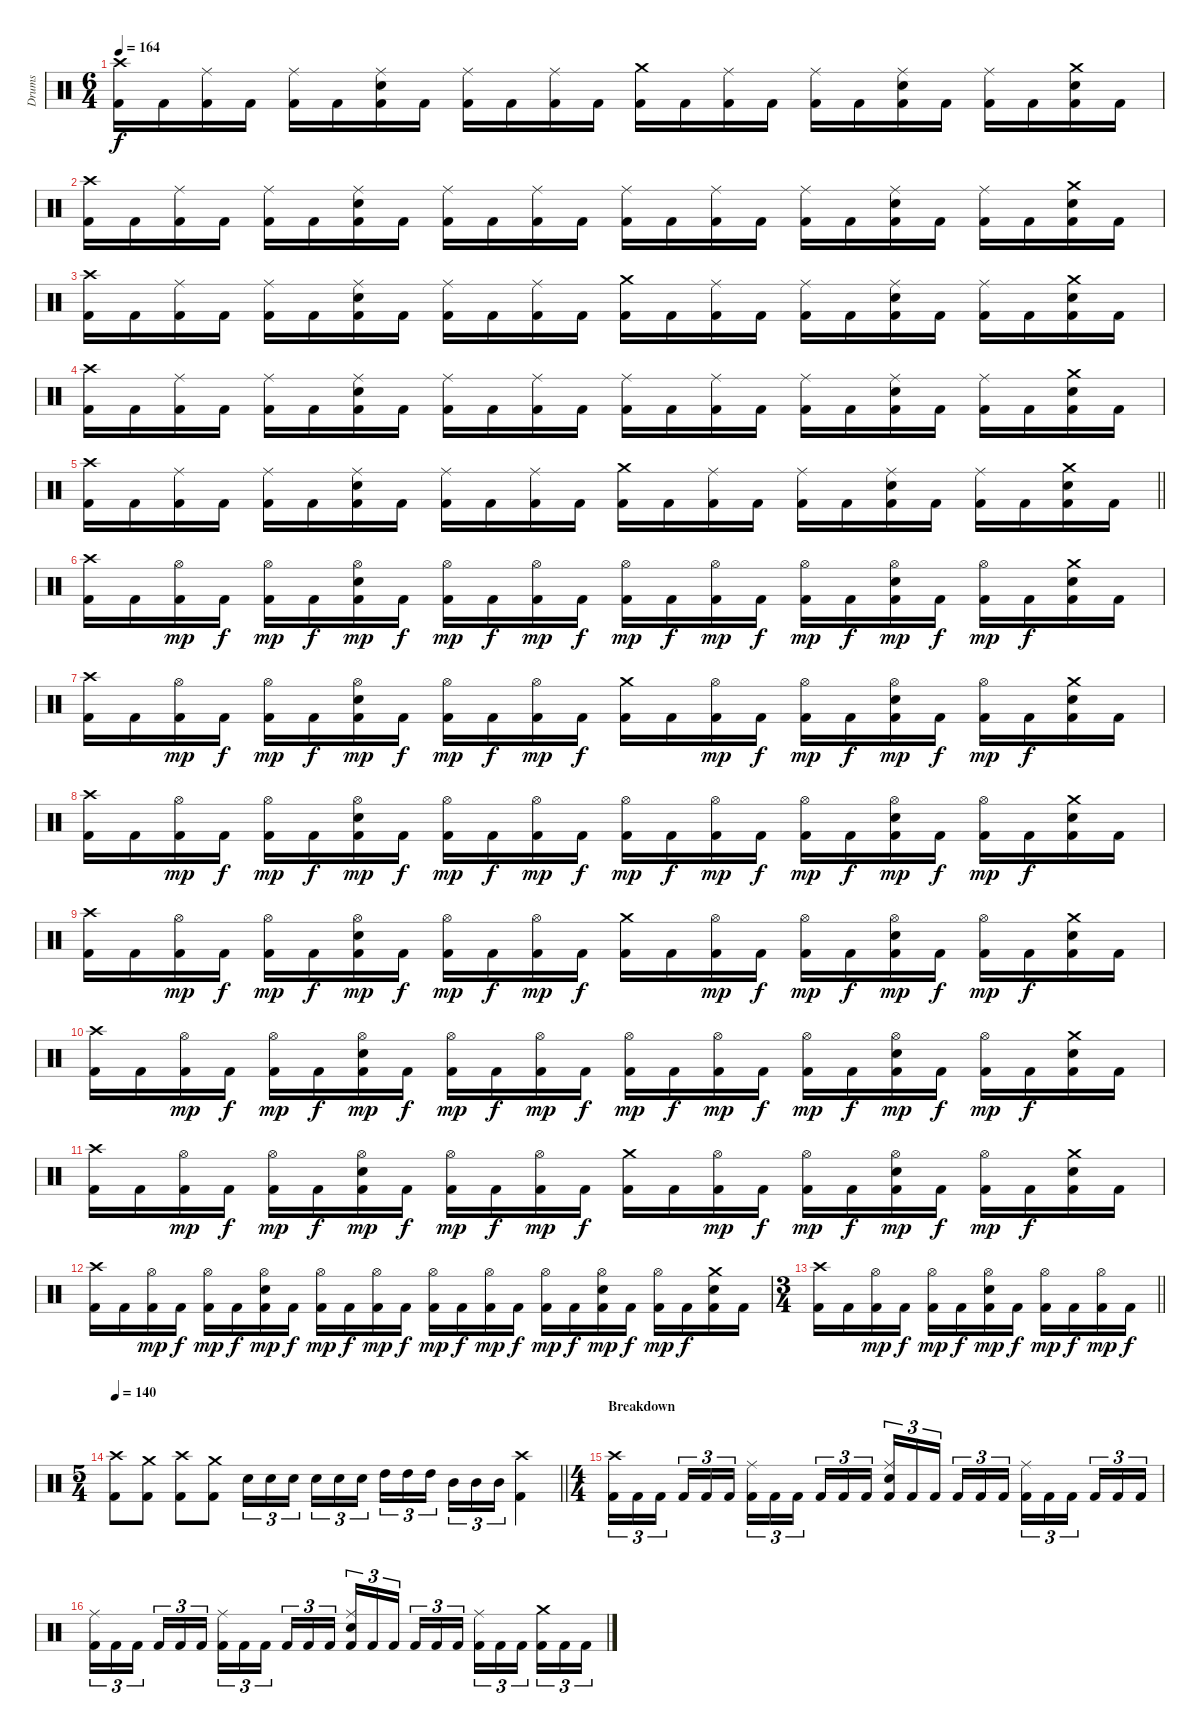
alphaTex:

\track ("Drums" "Drums") {instrument percussion}
\staff {score}
\articulation defaults
\ts (6 4)
\tempo 164
\clef neutral
\ks c
("Crash high (hit)" "Kick (hit) 2").16{dy f} "Kick (hit) 2".16 ("Ride (middle)" "Kick (hit) 2").16 "Kick (hit) 2".16 ("Ride (middle)" "Kick (hit) 2").16 "Kick (hit) 2".16 ("Ride (middle)" "Snare (hit) 2" "Kick (hit) 2").16 "Kick (hit) 2".16 ("Ride (middle)" "Kick (hit) 2").16 "Kick (hit) 2".16 ("Ride (middle)" "Kick (hit) 2").16 "Kick (hit) 2".16 ("Crash medium (hit)" "Kick (hit) 2").16 "Kick (hit) 2".16 ("Ride (middle)" "Kick (hit) 2").16 "Kick (hit) 2".16 ("Ride (middle)" "Kick (hit) 2").16 "Kick (hit) 2".16 ("Ride (middle)" "Snare (hit) 2" "Kick (hit) 2").16 "Kick (hit) 2".16 ("Ride (middle)" "Kick (hit) 2").16 "Kick (hit) 2".16 ("Crash medium (hit)" "Snare (hit) 2" "Kick (hit) 2").16 "Kick (hit) 2".16 |
("Crash high (hit)" "Kick (hit) 2").16 "Kick (hit) 2".16 ("Ride (middle)" "Kick (hit) 2").16 "Kick (hit) 2".16 ("Ride (middle)" "Kick (hit) 2").16 "Kick (hit) 2".16 ("Ride (middle)" "Snare (hit) 2" "Kick (hit) 2").16 "Kick (hit) 2".16 ("Ride (middle)" "Kick (hit) 2").16 "Kick (hit) 2".16 ("Ride (middle)" "Kick (hit) 2").16 "Kick (hit) 2".16 ("Ride (middle)" "Kick (hit) 2").16 "Kick (hit) 2".16 ("Ride (middle)" "Kick (hit) 2").16 "Kick (hit) 2".16 ("Ride (middle)" "Kick (hit) 2").16 "Kick (hit) 2".16 ("Ride (middle)" "Snare (hit) 2" "Kick (hit) 2").16 "Kick (hit) 2".16 ("Ride (middle)" "Kick (hit) 2").16 "Kick (hit) 2".16 ("Crash medium (hit)" "Snare (hit) 2" "Kick (hit) 2").16 "Kick (hit) 2".16 |
("Crash high (hit)" "Kick (hit) 2").16 "Kick (hit) 2".16 ("Ride (middle)" "Kick (hit) 2").16 "Kick (hit) 2".16 ("Ride (middle)" "Kick (hit) 2").16 "Kick (hit) 2".16 ("Ride (middle)" "Snare (hit) 2" "Kick (hit) 2").16 "Kick (hit) 2".16 ("Ride (middle)" "Kick (hit) 2").16 "Kick (hit) 2".16 ("Ride (middle)" "Kick (hit) 2").16 "Kick (hit) 2".16 ("Crash medium (hit)" "Kick (hit) 2").16 "Kick (hit) 2".16 ("Ride (middle)" "Kick (hit) 2").16 "Kick (hit) 2".16 ("Ride (middle)" "Kick (hit) 2").16 "Kick (hit) 2".16 ("Ride (middle)" "Snare (hit) 2" "Kick (hit) 2").16 "Kick (hit) 2".16 ("Ride (middle)" "Kick (hit) 2").16 "Kick (hit) 2".16 ("Crash medium (hit)" "Snare (hit) 2" "Kick (hit) 2").16 "Kick (hit) 2".16 |
("Crash high (hit)" "Kick (hit) 2").16 "Kick (hit) 2".16 ("Ride (middle)" "Kick (hit) 2").16 "Kick (hit) 2".16 ("Ride (middle)" "Kick (hit) 2").16 "Kick (hit) 2".16 ("Ride (middle)" "Snare (hit) 2" "Kick (hit) 2").16 "Kick (hit) 2".16 ("Ride (middle)" "Kick (hit) 2").16 "Kick (hit) 2".16 ("Ride (middle)" "Kick (hit) 2").16 "Kick (hit) 2".16 ("Ride (middle)" "Kick (hit) 2").16 "Kick (hit) 2".16 ("Ride (middle)" "Kick (hit) 2").16 "Kick (hit) 2".16 ("Ride (middle)" "Kick (hit) 2").16 "Kick (hit) 2".16 ("Ride (middle)" "Snare (hit) 2" "Kick (hit) 2").16 "Kick (hit) 2".16 ("Ride (middle)" "Kick (hit) 2").16 "Kick (hit) 2".16 ("Crash medium (hit)" "Snare (hit) 2" "Kick (hit) 2").16 "Kick (hit) 2".16 |
\barLineRight lightlight
("Crash high (hit)" "Kick (hit) 2").16 "Kick (hit) 2".16 ("Ride (middle)" "Kick (hit) 2").16 "Kick (hit) 2".16 ("Ride (middle)" "Kick (hit) 2").16 "Kick (hit) 2".16 ("Ride (middle)" "Snare (hit) 2" "Kick (hit) 2").16 "Kick (hit) 2".16 ("Ride (middle)" "Kick (hit) 2").16 "Kick (hit) 2".16 ("Ride (middle)" "Kick (hit) 2").16 "Kick (hit) 2".16 ("Crash medium (hit)" "Kick (hit) 2").16 "Kick (hit) 2".16 ("Ride (middle)" "Kick (hit) 2").16 "Kick (hit) 2".16 ("Ride (middle)" "Kick (hit) 2").16 "Kick (hit) 2".16 ("Ride (middle)" "Snare (hit) 2" "Kick (hit) 2").16 "Kick (hit) 2".16 ("Ride (middle)" "Kick (hit) 2").16 "Kick (hit) 2".16 ("Crash medium (hit)" "Snare (hit) 2" "Kick (hit) 2").16 "Kick (hit) 2".16 |
\section ("" "")
("Crash high (hit)" "Kick (hit) 2").16 "Kick (hit) 2".16 ("Hi-Hat (open)" "Kick (hit) 2").16{dy mp} "Kick (hit) 2".16{dy f} ("Hi-Hat (open)" "Kick (hit) 2").16{dy mp} "Kick (hit) 2".16{dy f} ("Hi-Hat (open)" "Snare (hit) 2" "Kick (hit) 2").16{dy mp} "Kick (hit) 2".16{dy f} ("Hi-Hat (open)" "Kick (hit) 2").16{dy mp} "Kick (hit) 2".16{dy f} ("Hi-Hat (open)" "Kick (hit) 2").16{dy mp} "Kick (hit) 2".16{dy f} ("Hi-Hat (open)" "Kick (hit) 2").16{dy mp} "Kick (hit) 2".16{dy f} ("Hi-Hat (open)" "Kick (hit) 2").16{dy mp} "Kick (hit) 2".16{dy f} ("Hi-Hat (open)" "Kick (hit) 2").16{dy mp} "Kick (hit) 2".16{dy f} ("Hi-Hat (open)" "Snare (hit) 2" "Kick (hit) 2").16{dy mp} "Kick (hit) 2".16{dy f} ("Hi-Hat (open)" "Kick (hit) 2").16{dy mp} "Kick (hit) 2".16{dy f} ("Crash medium (hit)" "Snare (hit) 2" "Kick (hit) 2").16 "Kick (hit) 2".16 |
("Crash high (hit)" "Kick (hit) 2").16 "Kick (hit) 2".16 ("Hi-Hat (open)" "Kick (hit) 2").16{dy mp} "Kick (hit) 2".16{dy f} ("Hi-Hat (open)" "Kick (hit) 2").16{dy mp} "Kick (hit) 2".16{dy f} ("Hi-Hat (open)" "Snare (hit) 2" "Kick (hit) 2").16{dy mp} "Kick (hit) 2".16{dy f} ("Hi-Hat (open)" "Kick (hit) 2").16{dy mp} "Kick (hit) 2".16{dy f} ("Hi-Hat (open)" "Kick (hit) 2").16{dy mp} "Kick (hit) 2".16{dy f} ("Crash medium (hit)" "Kick (hit) 2").16 "Kick (hit) 2".16 ("Hi-Hat (open)" "Kick (hit) 2").16{dy mp} "Kick (hit) 2".16{dy f} ("Hi-Hat (open)" "Kick (hit) 2").16{dy mp} "Kick (hit) 2".16{dy f} ("Hi-Hat (open)" "Snare (hit) 2" "Kick (hit) 2").16{dy mp} "Kick (hit) 2".16{dy f} ("Hi-Hat (open)" "Kick (hit) 2").16{dy mp} "Kick (hit) 2".16{dy f} ("Crash medium (hit)" "Snare (hit) 2" "Kick (hit) 2").16 "Kick (hit) 2".16 |
("Crash high (hit)" "Kick (hit) 2").16 "Kick (hit) 2".16 ("Hi-Hat (open)" "Kick (hit) 2").16{dy mp} "Kick (hit) 2".16{dy f} ("Hi-Hat (open)" "Kick (hit) 2").16{dy mp} "Kick (hit) 2".16{dy f} ("Hi-Hat (open)" "Snare (hit) 2" "Kick (hit) 2").16{dy mp} "Kick (hit) 2".16{dy f} ("Hi-Hat (open)" "Kick (hit) 2").16{dy mp} "Kick (hit) 2".16{dy f} ("Hi-Hat (open)" "Kick (hit) 2").16{dy mp} "Kick (hit) 2".16{dy f} ("Hi-Hat (open)" "Kick (hit) 2").16{dy mp} "Kick (hit) 2".16{dy f} ("Hi-Hat (open)" "Kick (hit) 2").16{dy mp} "Kick (hit) 2".16{dy f} ("Hi-Hat (open)" "Kick (hit) 2").16{dy mp} "Kick (hit) 2".16{dy f} ("Hi-Hat (open)" "Snare (hit) 2" "Kick (hit) 2").16{dy mp} "Kick (hit) 2".16{dy f} ("Hi-Hat (open)" "Kick (hit) 2").16{dy mp} "Kick (hit) 2".16{dy f} ("Crash medium (hit)" "Snare (hit) 2" "Kick (hit) 2").16 "Kick (hit) 2".16 |
("Crash high (hit)" "Kick (hit) 2").16 "Kick (hit) 2".16 ("Hi-Hat (open)" "Kick (hit) 2").16{dy mp} "Kick (hit) 2".16{dy f} ("Hi-Hat (open)" "Kick (hit) 2").16{dy mp} "Kick (hit) 2".16{dy f} ("Hi-Hat (open)" "Snare (hit) 2" "Kick (hit) 2").16{dy mp} "Kick (hit) 2".16{dy f} ("Hi-Hat (open)" "Kick (hit) 2").16{dy mp} "Kick (hit) 2".16{dy f} ("Hi-Hat (open)" "Kick (hit) 2").16{dy mp} "Kick (hit) 2".16{dy f} ("Crash medium (hit)" "Kick (hit) 2").16 "Kick (hit) 2".16 ("Hi-Hat (open)" "Kick (hit) 2").16{dy mp} "Kick (hit) 2".16{dy f} ("Hi-Hat (open)" "Kick (hit) 2").16{dy mp} "Kick (hit) 2".16{dy f} ("Hi-Hat (open)" "Snare (hit) 2" "Kick (hit) 2").16{dy mp} "Kick (hit) 2".16{dy f} ("Hi-Hat (open)" "Kick (hit) 2").16{dy mp} "Kick (hit) 2".16{dy f} ("Crash medium (hit)" "Snare (hit) 2" "Kick (hit) 2").16 "Kick (hit) 2".16 |
("Crash high (hit)" "Kick (hit) 2").16 "Kick (hit) 2".16 ("Hi-Hat (open)" "Kick (hit) 2").16{dy mp} "Kick (hit) 2".16{dy f} ("Hi-Hat (open)" "Kick (hit) 2").16{dy mp} "Kick (hit) 2".16{dy f} ("Hi-Hat (open)" "Snare (hit) 2" "Kick (hit) 2").16{dy mp} "Kick (hit) 2".16{dy f} ("Hi-Hat (open)" "Kick (hit) 2").16{dy mp} "Kick (hit) 2".16{dy f} ("Hi-Hat (open)" "Kick (hit) 2").16{dy mp} "Kick (hit) 2".16{dy f} ("Hi-Hat (open)" "Kick (hit) 2").16{dy mp} "Kick (hit) 2".16{dy f} ("Hi-Hat (open)" "Kick (hit) 2").16{dy mp} "Kick (hit) 2".16{dy f} ("Hi-Hat (open)" "Kick (hit) 2").16{dy mp} "Kick (hit) 2".16{dy f} ("Hi-Hat (open)" "Snare (hit) 2" "Kick (hit) 2").16{dy mp} "Kick (hit) 2".16{dy f} ("Hi-Hat (open)" "Kick (hit) 2").16{dy mp} "Kick (hit) 2".16{dy f} ("Crash medium (hit)" "Snare (hit) 2" "Kick (hit) 2").16 "Kick (hit) 2".16 |
("Crash high (hit)" "Kick (hit) 2").16 "Kick (hit) 2".16 ("Hi-Hat (open)" "Kick (hit) 2").16{dy mp} "Kick (hit) 2".16{dy f} ("Hi-Hat (open)" "Kick (hit) 2").16{dy mp} "Kick (hit) 2".16{dy f} ("Hi-Hat (open)" "Snare (hit) 2" "Kick (hit) 2").16{dy mp} "Kick (hit) 2".16{dy f} ("Hi-Hat (open)" "Kick (hit) 2").16{dy mp} "Kick (hit) 2".16{dy f} ("Hi-Hat (open)" "Kick (hit) 2").16{dy mp} "Kick (hit) 2".16{dy f} ("Crash medium (hit)" "Kick (hit) 2").16 "Kick (hit) 2".16 ("Hi-Hat (open)" "Kick (hit) 2").16{dy mp} "Kick (hit) 2".16{dy f} ("Hi-Hat (open)" "Kick (hit) 2").16{dy mp} "Kick (hit) 2".16{dy f} ("Hi-Hat (open)" "Snare (hit) 2" "Kick (hit) 2").16{dy mp} "Kick (hit) 2".16{dy f} ("Hi-Hat (open)" "Kick (hit) 2").16{dy mp} "Kick (hit) 2".16{dy f} ("Crash medium (hit)" "Snare (hit) 2" "Kick (hit) 2").16 "Kick (hit) 2".16 |
("Crash high (hit)" "Kick (hit) 2").16 "Kick (hit) 2".16 ("Hi-Hat (open)" "Kick (hit) 2").16{dy mp} "Kick (hit) 2".16{dy f} ("Hi-Hat (open)" "Kick (hit) 2").16{dy mp} "Kick (hit) 2".16{dy f} ("Hi-Hat (open)" "Snare (hit) 2" "Kick (hit) 2").16{dy mp} "Kick (hit) 2".16{dy f} ("Hi-Hat (open)" "Kick (hit) 2").16{dy mp} "Kick (hit) 2".16{dy f} ("Hi-Hat (open)" "Kick (hit) 2").16{dy mp} "Kick (hit) 2".16{dy f} ("Hi-Hat (open)" "Kick (hit) 2").16{dy mp} "Kick (hit) 2".16{dy f} ("Hi-Hat (open)" "Kick (hit) 2").16{dy mp} "Kick (hit) 2".16{dy f} ("Hi-Hat (open)" "Kick (hit) 2").16{dy mp} "Kick (hit) 2".16{dy f} ("Hi-Hat (open)" "Snare (hit) 2" "Kick (hit) 2").16{dy mp} "Kick (hit) 2".16{dy f} ("Hi-Hat (open)" "Kick (hit) 2").16{dy mp} "Kick (hit) 2".16{dy f} ("Crash medium (hit)" "Snare (hit) 2" "Kick (hit) 2").16 "Kick (hit) 2".16 |
\ts (3 4)
\barLineRight lightlight
("Crash high (hit)" "Kick (hit) 2").16 "Kick (hit) 2".16 ("Hi-Hat (open)" "Kick (hit) 2").16{dy mp} "Kick (hit) 2".16{dy f} ("Hi-Hat (open)" "Kick (hit) 2").16{dy mp} "Kick (hit) 2".16{dy f} ("Hi-Hat (open)" "Snare (hit) 2" "Kick (hit) 2").16{dy mp} "Kick (hit) 2".16{dy f} ("Hi-Hat (open)" "Kick (hit) 2").16{dy mp} "Kick (hit) 2".16{dy f} ("Hi-Hat (open)" "Kick (hit) 2").16{dy mp} "Kick (hit) 2".16{dy f} |
\ts (5 4)
\section ("" "")
\tempo 140
\barLineRight lightlight
("Crash high (hit)" "Kick (hit) 2").8 ("Crash medium (hit)" "Kick (hit) 2").8 ("Crash high (hit)" "Kick (hit) 2").8 ("Crash medium (hit)" "Kick (hit) 2").8 "Snare (hit) 2".16{tu (3 2)} "Snare (hit) 2".16{tu (3 2)} "Snare (hit) 2".16{tu (3 2) beam splitsecondary} "Snare (hit) 2".16{tu (3 2)} "Snare (hit) 2".16{tu (3 2)} "Snare (hit) 2".16{tu (3 2)} "High Tom (hit)".16{tu (3 2)} "High Tom (hit)".16{tu (3 2)} "High Tom (hit)".16{tu (3 2) beam splitsecondary} "Mid Tom (hit)".16{tu (3 2)} "Mid Tom (hit)".16{tu (3 2)} "Mid Tom (hit)".16{tu (3 2)} ("Crash high (hit)" "Kick (hit) 2").4 |
\ts (4 4)
\section ("" "Breakdown")
("Crash high (hit)" "Kick (hit) 2").16{tu (3 2)} "Kick (hit) 2".16{tu (3 2)} "Kick (hit) 2".16{tu (3 2) beam splitsecondary} "Kick (hit) 2".16{tu (3 2)} "Kick (hit) 2".16{tu (3 2)} "Kick (hit) 2".16{tu (3 2)} ("Ride (middle)" "Kick (hit) 2").16{tu (3 2)} "Kick (hit) 2".16{tu (3 2)} "Kick (hit) 2".16{tu (3 2) beam splitsecondary} "Kick (hit) 2".16{tu (3 2)} "Kick (hit) 2".16{tu (3 2)} "Kick (hit) 2".16{tu (3 2)} ("Ride (middle)" "Snare (hit) 2" "Kick (hit) 2").16{tu (3 2)} "Kick (hit) 2".16{tu (3 2)} "Kick (hit) 2".16{tu (3 2) beam splitsecondary} "Kick (hit) 2".16{tu (3 2)} "Kick (hit) 2".16{tu (3 2)} "Kick (hit) 2".16{tu (3 2)} ("Ride (middle)" "Kick (hit) 2").16{tu (3 2)} "Kick (hit) 2".16{tu (3 2)} "Kick (hit) 2".16{tu (3 2) beam splitsecondary} "Kick (hit) 2".16{tu (3 2)} "Kick (hit) 2".16{tu (3 2)} "Kick (hit) 2".16{tu (3 2)} |
("Ride (middle)" "Kick (hit) 2").16{tu (3 2)} "Kick (hit) 2".16{tu (3 2)} "Kick (hit) 2".16{tu (3 2) beam splitsecondary} "Kick (hit) 2".16{tu (3 2)} "Kick (hit) 2".16{tu (3 2)} "Kick (hit) 2".16{tu (3 2)} ("Ride (middle)" "Kick (hit) 2").16{tu (3 2)} "Kick (hit) 2".16{tu (3 2)} "Kick (hit) 2".16{tu (3 2) beam splitsecondary} "Kick (hit) 2".16{tu (3 2)} "Kick (hit) 2".16{tu (3 2)} "Kick (hit) 2".16{tu (3 2)} ("Ride (middle)" "Snare (hit) 2" "Kick (hit) 2").16{tu (3 2)} "Kick (hit) 2".16{tu (3 2)} "Kick (hit) 2".16{tu (3 2) beam splitsecondary} "Kick (hit) 2".16{tu (3 2)} "Kick (hit) 2".16{tu (3 2)} "Kick (hit) 2".16{tu (3 2)} ("Ride (middle)" "Kick (hit) 2").16{tu (3 2)} "Kick (hit) 2".16{tu (3 2)} "Kick (hit) 2".16{tu (3 2) beam splitsecondary} ("Crash medium (hit)" "Kick (hit) 2").16{tu (3 2)} "Kick (hit) 2".16{tu (3 2)} "Kick (hit) 2".16{tu (3 2)}
